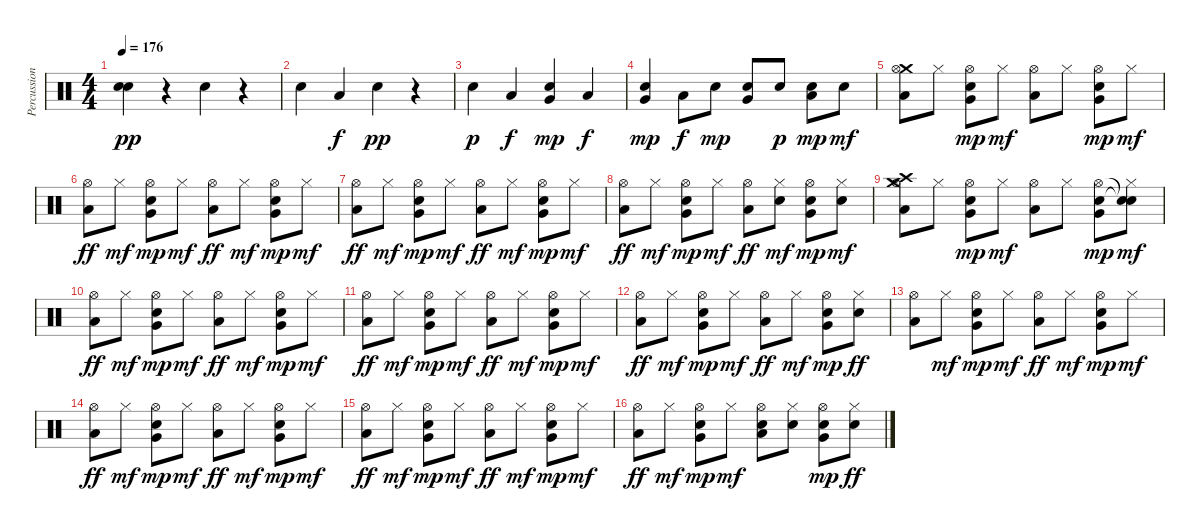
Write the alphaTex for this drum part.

\track ("Percussions" "Percussion") {instrument percussion}
\staff {score}
\articulation defaults
\ts (4 4)
\tempo 176
\clef neutral
\ks c
("Electric Snare (hit)"{t} "Electric Snare (hit)").4{dy pp} r.4 "Electric Snare (hit)".4 r.4 |
"Electric Snare (hit)".4 "Low Floor Tom (hit)".4{dy f} "Electric Snare (hit)".4{dy pp} r.4 |
"Electric Snare (hit)".4{dy p} "Low Floor Tom (hit)".4{dy f} ("Electric Snare (hit)" "Very Low Tom (hit)").4{dy mp} "Low Floor Tom (hit)".4{dy f} |
("Electric Snare (hit)" "Very Low Tom (hit)").4{dy mp} "Low Floor Tom (hit)".8{dy f} "Electric Snare (hit)".8{dy mp} ("Electric Snare (hit)" "Very Low Tom (hit)").8 "Electric Snare (hit)".8{dy p} ("Electric Snare (hit)" "Low Floor Tom (hit)").8{dy mp} "Electric Snare (hit)".8{dy mf} |
("Crash medium (hit)" "Hi-Hat (open)" "Low Floor Tom (hit)").8 "Hi-Hat (closed)".8 ("Hi-Hat (open)" "Electric Snare (hit)" "Very Low Tom (hit)").8{dy mp} "Hi-Hat (closed)".8{dy mf} ("Hi-Hat (open)" "Low Floor Tom (hit)").8 "Hi-Hat (closed)".8 ("Hi-Hat (open)" "Electric Snare (hit)" "Very Low Tom (hit)").8{dy mp} "Hi-Hat (closed)".8{dy mf} |
("Hi-Hat (open)" "Low Floor Tom (hit)").8{dy ff} "Hi-Hat (closed)".8{dy mf} ("Hi-Hat (open)" "Electric Snare (hit)" "Very Low Tom (hit)").8{dy mp} "Hi-Hat (closed)".8{dy mf} ("Hi-Hat (open)" "Low Floor Tom (hit)").8{dy ff} "Hi-Hat (closed)".8{dy mf} ("Hi-Hat (open)" "Electric Snare (hit)" "Very Low Tom (hit)").8{dy mp} "Hi-Hat (closed)".8{dy mf} |
("Hi-Hat (open)" "Low Floor Tom (hit)").8{dy ff} "Hi-Hat (closed)".8{dy mf} ("Hi-Hat (open)" "Electric Snare (hit)" "Very Low Tom (hit)").8{dy mp} "Hi-Hat (closed)".8{dy mf} ("Hi-Hat (open)" "Low Floor Tom (hit)").8{dy ff} "Hi-Hat (closed)".8{dy mf} ("Hi-Hat (open)" "Electric Snare (hit)" "Very Low Tom (hit)").8{dy mp} "Hi-Hat (closed)".8{dy mf} |
("Hi-Hat (open)" "Low Floor Tom (hit)").8{dy ff} "Hi-Hat (closed)".8{dy mf} ("Hi-Hat (open)" "Electric Snare (hit)" "Very Low Tom (hit)").8{dy mp} "Hi-Hat (closed)".8{dy mf} ("Hi-Hat (open)" "Low Floor Tom (hit)").8{dy ff} ("Hi-Hat (closed)" "Electric Snare (hit)").8{dy mf} ("Hi-Hat (open)" "Electric Snare (hit)" "Very Low Tom (hit)").8{dy mp} ("Hi-Hat (closed)" "Electric Snare (hit)").8{dy mf} |
("Crash high (hit)" "Crash medium (hit)" "Hi-Hat (open)" "Low Floor Tom (hit)").8 "Hi-Hat (closed)".8 ("Hi-Hat (open)" "Electric Snare (hit)" "Very Low Tom (hit)").8{dy mp} "Hi-Hat (closed)".8{dy mf} ("Hi-Hat (open)" "Low Floor Tom (hit)").8 "Hi-Hat (closed)".8 ("Hi-Hat (open)" "Electric Snare (hit)" "Very Low Tom (hit)").8{dy mp} ("Snare (hit)"{t} "Snare (hit)"{t} "Hi-Hat (closed)").8{dy mf} |
("Hi-Hat (open)" "Low Floor Tom (hit)").8{dy ff} "Hi-Hat (closed)".8{dy mf} ("Hi-Hat (open)" "Electric Snare (hit)" "Very Low Tom (hit)").8{dy mp} "Hi-Hat (closed)".8{dy mf} ("Hi-Hat (open)" "Low Floor Tom (hit)").8{dy ff} "Hi-Hat (closed)".8{dy mf} ("Hi-Hat (open)" "Electric Snare (hit)" "Very Low Tom (hit)").8{dy mp} "Hi-Hat (closed)".8{dy mf} |
("Hi-Hat (open)" "Low Floor Tom (hit)").8{dy ff} "Hi-Hat (closed)".8{dy mf} ("Hi-Hat (open)" "Electric Snare (hit)" "Very Low Tom (hit)").8{dy mp} "Hi-Hat (closed)".8{dy mf} ("Hi-Hat (open)" "Low Floor Tom (hit)").8{dy ff} "Hi-Hat (closed)".8{dy mf} ("Hi-Hat (open)" "Electric Snare (hit)" "Very Low Tom (hit)").8{dy mp} "Hi-Hat (closed)".8{dy mf} |
("Hi-Hat (open)" "Low Floor Tom (hit)").8{dy ff} "Hi-Hat (closed)".8{dy mf} ("Hi-Hat (open)" "Electric Snare (hit)" "Very Low Tom (hit)").8{dy mp} "Hi-Hat (closed)".8{dy mf} ("Hi-Hat (open)" "Low Floor Tom (hit)").8{dy ff} "Hi-Hat (closed)".8{dy mf} ("Hi-Hat (open)" "Very Low Tom (hit)" "Electric Snare (hit)").8{dy mp} ("Hi-Hat (closed)" "Electric Snare (hit)").8{dy ff} |
("Hi-Hat (open)" "Low Floor Tom (hit)").8 "Hi-Hat (closed)".8{dy mf} ("Hi-Hat (open)" "Electric Snare (hit)" "Very Low Tom (hit)").8{dy mp} "Hi-Hat (closed)".8{dy mf} ("Hi-Hat (open)" "Low Floor Tom (hit)").8{dy ff} "Hi-Hat (closed)".8{dy mf} ("Hi-Hat (open)" "Electric Snare (hit)" "Very Low Tom (hit)").8{dy mp} "Hi-Hat (closed)".8{dy mf} |
("Hi-Hat (open)" "Low Floor Tom (hit)").8{dy ff} "Hi-Hat (closed)".8{dy mf} ("Hi-Hat (open)" "Electric Snare (hit)" "Very Low Tom (hit)").8{dy mp} "Hi-Hat (closed)".8{dy mf} ("Hi-Hat (open)" "Low Floor Tom (hit)").8{dy ff} "Hi-Hat (closed)".8{dy mf} ("Hi-Hat (open)" "Electric Snare (hit)" "Very Low Tom (hit)").8{dy mp} "Hi-Hat (closed)".8{dy mf} |
("Hi-Hat (open)" "Low Floor Tom (hit)").8{dy ff} "Hi-Hat (closed)".8{dy mf} ("Hi-Hat (open)" "Electric Snare (hit)" "Very Low Tom (hit)").8{dy mp} "Hi-Hat (closed)".8{dy mf} ("Hi-Hat (open)" "Low Floor Tom (hit)").8{dy ff} "Hi-Hat (closed)".8{dy mf} ("Hi-Hat (open)" "Electric Snare (hit)" "Very Low Tom (hit)").8{dy mp} "Hi-Hat (closed)".8{dy mf} |
("Hi-Hat (open)" "Low Floor Tom (hit)").8{dy ff} "Hi-Hat (closed)".8{dy mf} ("Hi-Hat (open)" "Electric Snare (hit)" "Very Low Tom (hit)").8{dy mp} "Hi-Hat (closed)".8{dy mf} ("Hi-Hat (open)" "Low Floor Tom (hit)" "Electric Snare (hit)").8 ("Hi-Hat (closed)" "Electric Snare (hit)").8 ("Hi-Hat (open)" "Very Low Tom (hit)" "Electric Snare (hit)").8{dy mp} ("Hi-Hat (closed)" "Electric Snare (hit)").8{dy ff}
